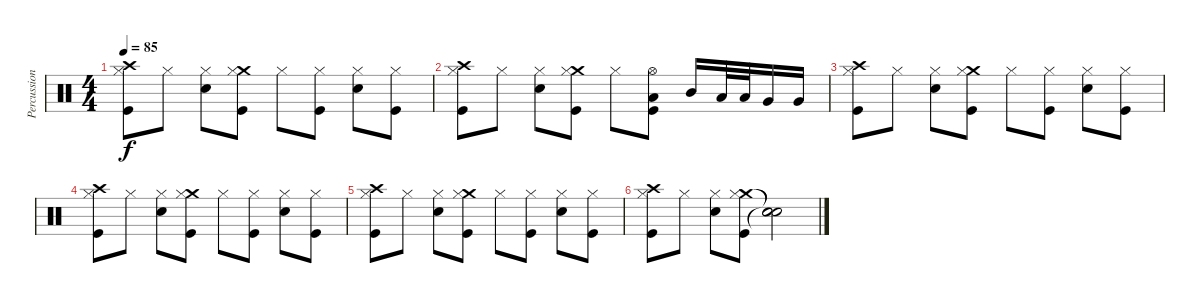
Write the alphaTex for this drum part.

\track ("Percussion" "Percussion") {instrument percussion}
\staff {score}
\articulation defaults
\ts (4 4)
\tempo 85
\clef neutral
\ks c
("Crash high (hit)" "Hi-Hat (closed)" "Kick (hit)").8{dy f} "Hi-Hat (closed)".8 ("Hi-Hat (closed)" "Snare (hit) 2").8 ("Crash medium (hit)" "Hi-Hat (closed)" "Kick (hit)").8 "Hi-Hat (closed)".8 ("Hi-Hat (closed)" "Kick (hit)").8 ("Hi-Hat (closed)" "Snare (hit) 2").8 ("Hi-Hat (closed)" "Kick (hit)").8 |
("Crash high (hit)" "Hi-Hat (closed)" "Kick (hit)").8 "Hi-Hat (closed)".8 ("Hi-Hat (closed)" "Snare (hit) 2").8 ("Crash medium (hit)" "Hi-Hat (closed)" "Kick (hit)").8 "Hi-Hat (closed)".8 ("Hi-Hat (open)" "Low Floor Tom (hit)" "Kick (hit)").8 "Mid Tom (hit)".16 "Low Tom (hit)".32 "Low Tom (hit)".32 "Very Low Tom (hit)".16 "Very Low Tom (hit)".16 |
("Crash high (hit)" "Hi-Hat (closed)" "Kick (hit)").8 "Hi-Hat (closed)".8 ("Hi-Hat (closed)" "Snare (hit) 2").8 ("Crash medium (hit)" "Hi-Hat (closed)" "Kick (hit)").8 "Hi-Hat (closed)".8 ("Hi-Hat (closed)" "Kick (hit)").8 ("Hi-Hat (closed)" "Snare (hit) 2").8 ("Hi-Hat (closed)" "Kick (hit)").8 |
("Crash high (hit)" "Hi-Hat (closed)" "Kick (hit)").8 "Hi-Hat (closed)".8 ("Hi-Hat (closed)" "Snare (hit) 2").8 ("Crash medium (hit)" "Hi-Hat (closed)" "Kick (hit)").8 "Hi-Hat (closed)".8 ("Hi-Hat (closed)" "Kick (hit)").8 ("Hi-Hat (closed)" "Snare (hit) 2").8 ("Hi-Hat (closed)" "Kick (hit)").8 |
("Crash high (hit)" "Hi-Hat (closed)" "Kick (hit)").8 "Hi-Hat (closed)".8 ("Hi-Hat (closed)" "Snare (hit) 2").8 ("Crash medium (hit)" "Hi-Hat (closed)" "Kick (hit)").8 "Hi-Hat (closed)".8 ("Hi-Hat (closed)" "Kick (hit)").8 ("Hi-Hat (closed)" "Snare (hit) 2").8 ("Hi-Hat (closed)" "Kick (hit)").8 |
("Crash high (hit)" "Hi-Hat (closed)" "Kick (hit)").8 "Hi-Hat (closed)".8 ("Hi-Hat (closed)" "Snare (hit) 2").8 ("Crash medium (hit)" "Hi-Hat (closed)" "Kick (hit)").8 ("Snare (hit)"{t} "Snare (hit)"{t} "Snare (hit)"{t}).2
